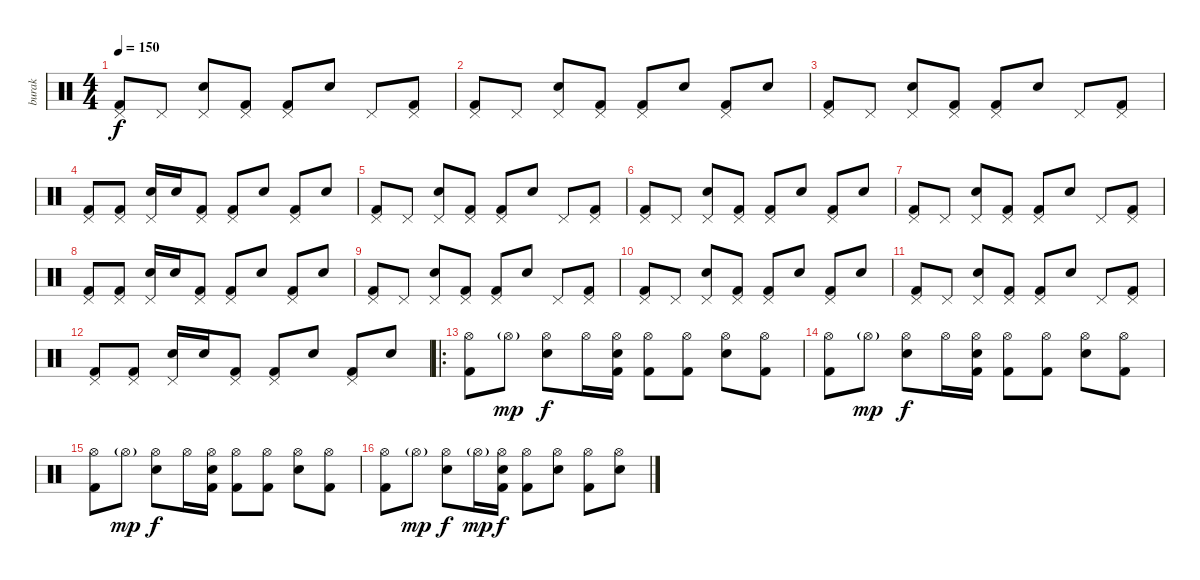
\track ("burak" "burak") {instrument percussion}
\staff {score}
\articulation defaults
\ts (4 4)
\tempo 150
\clef neutral
\ks c
("Pedal Hi-Hat (hit)" "Kick (hit) 2").8{dy f} "Pedal Hi-Hat (hit)".8 ("Pedal Hi-Hat (hit)" "Electric Snare (hit)").8 ("Pedal Hi-Hat (hit)" "Kick (hit) 2").8 ("Pedal Hi-Hat (hit)" "Kick (hit) 2").8 "Electric Snare (hit)".8 "Pedal Hi-Hat (hit)".8 ("Pedal Hi-Hat (hit)" "Kick (hit) 2").8 |
("Pedal Hi-Hat (hit)" "Kick (hit) 2").8 "Pedal Hi-Hat (hit)".8 ("Pedal Hi-Hat (hit)" "Electric Snare (hit)").8 ("Pedal Hi-Hat (hit)" "Kick (hit) 2").8 ("Pedal Hi-Hat (hit)" "Kick (hit) 2").8 "Electric Snare (hit)".8 ("Pedal Hi-Hat (hit)" "Kick (hit) 2").8 "Electric Snare (hit)".8 |
("Pedal Hi-Hat (hit)" "Kick (hit) 2").8 "Pedal Hi-Hat (hit)".8 ("Pedal Hi-Hat (hit)" "Electric Snare (hit)").8 ("Pedal Hi-Hat (hit)" "Kick (hit) 2").8 ("Pedal Hi-Hat (hit)" "Kick (hit) 2").8 "Electric Snare (hit)".8 "Pedal Hi-Hat (hit)".8 ("Pedal Hi-Hat (hit)" "Kick (hit) 2").8 |
("Pedal Hi-Hat (hit)" "Kick (hit) 2").8 ("Pedal Hi-Hat (hit)" "Kick (hit) 2").8 ("Pedal Hi-Hat (hit)" "Electric Snare (hit)").16 "Electric Snare (hit)".16 ("Pedal Hi-Hat (hit)" "Kick (hit) 2").8 ("Pedal Hi-Hat (hit)" "Kick (hit) 2").8 "Electric Snare (hit)".8 ("Pedal Hi-Hat (hit)" "Kick (hit) 2").8 "Electric Snare (hit)".8 |
("Pedal Hi-Hat (hit)" "Kick (hit) 2").8 "Pedal Hi-Hat (hit)".8 ("Pedal Hi-Hat (hit)" "Electric Snare (hit)").8 ("Pedal Hi-Hat (hit)" "Kick (hit) 2").8 ("Pedal Hi-Hat (hit)" "Kick (hit) 2").8 "Electric Snare (hit)".8 "Pedal Hi-Hat (hit)".8 ("Pedal Hi-Hat (hit)" "Kick (hit) 2").8 |
("Pedal Hi-Hat (hit)" "Kick (hit) 2").8 "Pedal Hi-Hat (hit)".8 ("Pedal Hi-Hat (hit)" "Electric Snare (hit)").8 ("Pedal Hi-Hat (hit)" "Kick (hit) 2").8 ("Pedal Hi-Hat (hit)" "Kick (hit) 2").8 "Electric Snare (hit)".8 ("Pedal Hi-Hat (hit)" "Kick (hit) 2").8 "Electric Snare (hit)".8 |
("Pedal Hi-Hat (hit)" "Kick (hit) 2").8 "Pedal Hi-Hat (hit)".8 ("Pedal Hi-Hat (hit)" "Electric Snare (hit)").8 ("Pedal Hi-Hat (hit)" "Kick (hit) 2").8 ("Pedal Hi-Hat (hit)" "Kick (hit) 2").8 "Electric Snare (hit)".8 "Pedal Hi-Hat (hit)".8 ("Pedal Hi-Hat (hit)" "Kick (hit) 2").8 |
("Pedal Hi-Hat (hit)" "Kick (hit) 2").8 ("Pedal Hi-Hat (hit)" "Kick (hit) 2").8 ("Pedal Hi-Hat (hit)" "Electric Snare (hit)").16 "Electric Snare (hit)".16 ("Pedal Hi-Hat (hit)" "Kick (hit) 2").8 ("Pedal Hi-Hat (hit)" "Kick (hit) 2").8 "Electric Snare (hit)".8 ("Pedal Hi-Hat (hit)" "Kick (hit) 2").8 "Electric Snare (hit)".8 |
("Pedal Hi-Hat (hit)" "Kick (hit) 2").8 "Pedal Hi-Hat (hit)".8 ("Pedal Hi-Hat (hit)" "Electric Snare (hit)").8 ("Pedal Hi-Hat (hit)" "Kick (hit) 2").8 ("Pedal Hi-Hat (hit)" "Kick (hit) 2").8 "Electric Snare (hit)".8 "Pedal Hi-Hat (hit)".8 ("Pedal Hi-Hat (hit)" "Kick (hit) 2").8 |
("Pedal Hi-Hat (hit)" "Kick (hit) 2").8 "Pedal Hi-Hat (hit)".8 ("Pedal Hi-Hat (hit)" "Electric Snare (hit)").8 ("Pedal Hi-Hat (hit)" "Kick (hit) 2").8 ("Pedal Hi-Hat (hit)" "Kick (hit) 2").8 "Electric Snare (hit)".8 ("Pedal Hi-Hat (hit)" "Kick (hit) 2").8 "Electric Snare (hit)".8 |
("Pedal Hi-Hat (hit)" "Kick (hit) 2").8 "Pedal Hi-Hat (hit)".8 ("Pedal Hi-Hat (hit)" "Electric Snare (hit)").8 ("Pedal Hi-Hat (hit)" "Kick (hit) 2").8 ("Pedal Hi-Hat (hit)" "Kick (hit) 2").8 "Electric Snare (hit)".8 "Pedal Hi-Hat (hit)".8 ("Pedal Hi-Hat (hit)" "Kick (hit) 2").8 |
("Pedal Hi-Hat (hit)" "Kick (hit) 2").8 ("Pedal Hi-Hat (hit)" "Kick (hit) 2").8 ("Pedal Hi-Hat (hit)" "Electric Snare (hit)").16 "Electric Snare (hit)".16 ("Pedal Hi-Hat (hit)" "Kick (hit) 2").8 ("Pedal Hi-Hat (hit)" "Kick (hit) 2").8 "Electric Snare (hit)".8 ("Pedal Hi-Hat (hit)" "Kick (hit) 2").8 "Electric Snare (hit)".8 |
\ro
("Hi-Hat (open)" "Kick (hit) 2").8 "Hi-Hat (open)"{g}.8{dy mp} ("Hi-Hat (open)" "Electric Snare (hit)").8{dy f} "Hi-Hat (open)".16 ("Hi-Hat (open)" "Kick (hit) 2" "Electric Snare (hit)").16 ("Hi-Hat (open)" "Kick (hit) 2").8 ("Hi-Hat (open)" "Kick (hit) 2").8 ("Hi-Hat (open)" "Electric Snare (hit)").8 ("Hi-Hat (open)" "Kick (hit) 2").8 |
("Hi-Hat (open)" "Kick (hit) 2").8 "Hi-Hat (open)"{g}.8{dy mp} ("Hi-Hat (open)" "Electric Snare (hit)").8{dy f} "Hi-Hat (open)".16 ("Hi-Hat (open)" "Kick (hit) 2" "Electric Snare (hit)").16 ("Hi-Hat (open)" "Kick (hit) 2").8 ("Hi-Hat (open)" "Kick (hit) 2").8 ("Hi-Hat (open)" "Electric Snare (hit)").8 ("Hi-Hat (open)" "Kick (hit) 2").8 |
("Hi-Hat (open)" "Kick (hit) 2").8 "Hi-Hat (open)"{g}.8{dy mp} ("Hi-Hat (open)" "Electric Snare (hit)").8{dy f} "Hi-Hat (open)".16 ("Hi-Hat (open)" "Kick (hit) 2" "Electric Snare (hit)").16 ("Hi-Hat (open)" "Kick (hit) 2").8 ("Hi-Hat (open)" "Kick (hit) 2").8 ("Hi-Hat (open)" "Electric Snare (hit)").8 ("Hi-Hat (open)" "Kick (hit) 2").8 |
("Hi-Hat (open)" "Kick (hit) 2").8 "Hi-Hat (open)"{g}.8{dy mp} ("Hi-Hat (open)" "Electric Snare (hit)").8{dy f} "Hi-Hat (open)"{g}.16{dy mp} ("Hi-Hat (open)" "Kick (hit) 2" "Electric Snare (hit)").16{dy f} ("Hi-Hat (open)" "Kick (hit) 2").8 ("Hi-Hat (open)" "Electric Snare (hit)").8 ("Hi-Hat (open)" "Kick (hit) 2").8 ("Hi-Hat (open)" "Electric Snare (hit)").8
